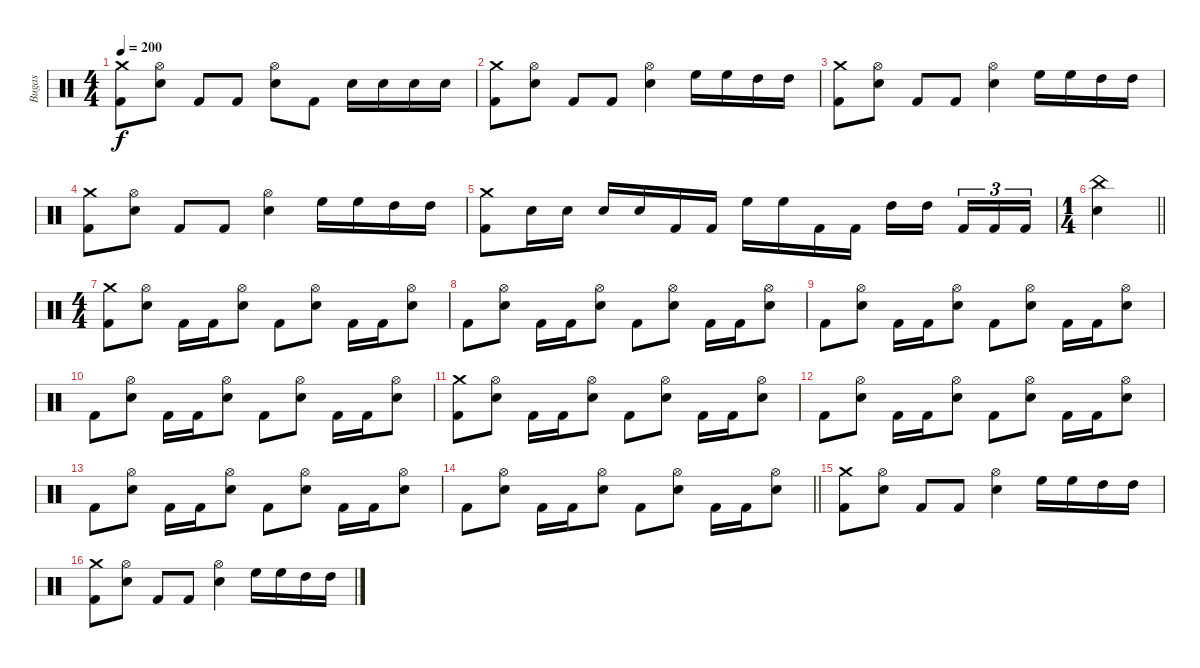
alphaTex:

\track ("Bugas" "Bugas") {instrument percussion}
\staff {score}
\articulation defaults
\ts (4 4)
\tempo 200
\clef neutral
\ks c
("Crash medium (hit)" "Kick (hit) 2").8{dy f} ("Hi-Hat (open)" "Electric Snare (hit)").8 "Kick (hit) 2".8 "Kick (hit) 2".8 ("Hi-Hat (open)" "Electric Snare (hit)").8 "Kick (hit) 2".8 "Electric Snare (hit)".16 "Electric Snare (hit)".16 "Electric Snare (hit)".16 "Electric Snare (hit)".16 |
("Crash medium (hit)" "Kick (hit) 2").8 ("Hi-Hat (open)" "Electric Snare (hit)").8 "Kick (hit) 2".8 "Kick (hit) 2".8 ("Hi-Hat (open)" "Electric Snare (hit)").4 "High Floor Tom (hit)".16 "High Floor Tom (hit)".16 "High Tom (hit)".16 "High Tom (hit)".16 |
("Crash medium (hit)" "Kick (hit) 2").8 ("Hi-Hat (open)" "Electric Snare (hit)").8 "Kick (hit) 2".8 "Kick (hit) 2".8 ("Hi-Hat (open)" "Electric Snare (hit)").4 "High Floor Tom (hit)".16 "High Floor Tom (hit)".16 "High Tom (hit)".16 "High Tom (hit)".16 |
("Crash medium (hit)" "Kick (hit) 2").8 ("Hi-Hat (open)" "Electric Snare (hit)").8 "Kick (hit) 2".8 "Kick (hit) 2".8 ("Hi-Hat (open)" "Electric Snare (hit)").4 "High Floor Tom (hit)".16 "High Floor Tom (hit)".16 "High Tom (hit)".16 "High Tom (hit)".16 |
("Crash medium (hit)" "Kick (hit) 2").8 "Electric Snare (hit)".16 "Electric Snare (hit)".16 "Electric Snare (hit)".16 "Electric Snare (hit)".16 "Kick (hit) 2".16 "Kick (hit) 2".16 "High Floor Tom (hit)".16 "High Floor Tom (hit)".16 "Kick (hit) 2".16 "Kick (hit) 2".16 "High Tom (hit)".16 "High Tom (hit)".16 "Kick (hit) 2".16{tu (3 2)} "Kick (hit) 2".16{tu (3 2)} "Kick (hit) 2".16{tu (3 2)} |
\ts (1 4)
\barLineRight lightlight
("China (hit)" "Electric Snare (hit)").4 |
\ts (4 4)
("Crash medium (hit)" "Kick (hit) 2").8 ("Hi-Hat (open)" "Electric Snare (hit)").8 "Kick (hit) 2".16 "Kick (hit) 2".16 ("Hi-Hat (open)" "Electric Snare (hit)").8 "Kick (hit) 2".8 ("Hi-Hat (open)" "Electric Snare (hit)").8 "Kick (hit) 2".16 "Kick (hit) 2".16 ("Hi-Hat (open)" "Electric Snare (hit)").8 |
"Kick (hit) 2".8 ("Hi-Hat (open)" "Electric Snare (hit)").8 "Kick (hit) 2".16 "Kick (hit) 2".16 ("Hi-Hat (open)" "Electric Snare (hit)").8 "Kick (hit) 2".8 ("Hi-Hat (open)" "Electric Snare (hit)").8 "Kick (hit) 2".16 "Kick (hit) 2".16 ("Hi-Hat (open)" "Electric Snare (hit)").8 |
"Kick (hit) 2".8 ("Hi-Hat (open)" "Electric Snare (hit)").8 "Kick (hit) 2".16 "Kick (hit) 2".16 ("Hi-Hat (open)" "Electric Snare (hit)").8 "Kick (hit) 2".8 ("Hi-Hat (open)" "Electric Snare (hit)").8 "Kick (hit) 2".16 "Kick (hit) 2".16 ("Hi-Hat (open)" "Electric Snare (hit)").8 |
"Kick (hit) 2".8 ("Hi-Hat (open)" "Electric Snare (hit)").8 "Kick (hit) 2".16 "Kick (hit) 2".16 ("Hi-Hat (open)" "Electric Snare (hit)").8 "Kick (hit) 2".8 ("Hi-Hat (open)" "Electric Snare (hit)").8 "Kick (hit) 2".16 "Kick (hit) 2".16 ("Hi-Hat (open)" "Electric Snare (hit)").8 |
("Crash medium (hit)" "Kick (hit) 2").8 ("Hi-Hat (open)" "Electric Snare (hit)").8 "Kick (hit) 2".16 "Kick (hit) 2".16 ("Hi-Hat (open)" "Electric Snare (hit)").8 "Kick (hit) 2".8 ("Hi-Hat (open)" "Electric Snare (hit)").8 "Kick (hit) 2".16 "Kick (hit) 2".16 ("Hi-Hat (open)" "Electric Snare (hit)").8 |
"Kick (hit) 2".8 ("Hi-Hat (open)" "Electric Snare (hit)").8 "Kick (hit) 2".16 "Kick (hit) 2".16 ("Hi-Hat (open)" "Electric Snare (hit)").8 "Kick (hit) 2".8 ("Hi-Hat (open)" "Electric Snare (hit)").8 "Kick (hit) 2".16 "Kick (hit) 2".16 ("Hi-Hat (open)" "Electric Snare (hit)").8 |
"Kick (hit) 2".8 ("Hi-Hat (open)" "Electric Snare (hit)").8 "Kick (hit) 2".16 "Kick (hit) 2".16 ("Hi-Hat (open)" "Electric Snare (hit)").8 "Kick (hit) 2".8 ("Hi-Hat (open)" "Electric Snare (hit)").8 "Kick (hit) 2".16 "Kick (hit) 2".16 ("Hi-Hat (open)" "Electric Snare (hit)").8 |
\barLineRight lightlight "Kick (hit) 2".8
("Hi-Hat (open)" "Electric Snare (hit)").8 "Kick (hit) 2".16 "Kick (hit) 2".16 ("Hi-Hat (open)" "Electric Snare (hit)").8 "Kick (hit) 2".8 ("Hi-Hat (open)" "Electric Snare (hit)").8 "Kick (hit) 2".16 "Kick (hit) 2".16 ("Hi-Hat (open)" "Electric Snare (hit)").8 |
("Crash medium (hit)" "Kick (hit) 2").8 ("Hi-Hat (open)" "Electric Snare (hit)").8 "Kick (hit) 2".8 "Kick (hit) 2".8 ("Hi-Hat (open)" "Electric Snare (hit)").4 "High Floor Tom (hit)".16 "High Floor Tom (hit)".16 "High Tom (hit)".16 "High Tom (hit)".16 |
("Crash medium (hit)" "Kick (hit) 2").8 ("Hi-Hat (open)" "Electric Snare (hit)").8 "Kick (hit) 2".8 "Kick (hit) 2".8 ("Hi-Hat (open)" "Electric Snare (hit)").4 "High Floor Tom (hit)".16 "High Floor Tom (hit)".16 "High Tom (hit)".16 "High Tom (hit)".16
